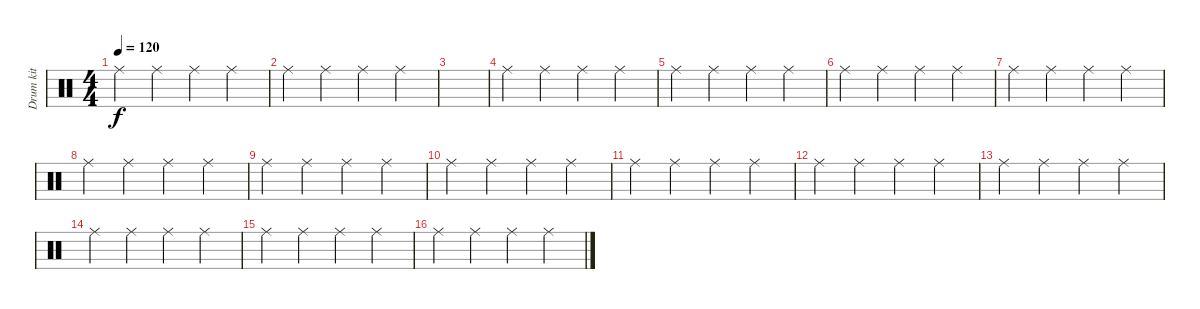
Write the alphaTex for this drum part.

\track ("Drum kit" "Drum kit") {instrument percussion}
\staff {score}
\articulation defaults
\ts (4 4)
\tempo 120
\clef neutral
\ks c "Ride (middle)".4{dy f} "Ride (middle)".4 "Ride (middle)".4 "Ride (middle)".4
|
"Ride (middle)".4 "Ride (middle)".4 "Ride (middle)".4 "Ride (middle)".4 |
|
"Ride (middle)".4 "Ride (middle)".4 "Ride (middle)".4 "Ride (middle)".4 |
"Ride (middle)".4 "Ride (middle)".4 "Ride (middle)".4 "Ride (middle)".4 |
"Ride (middle)".4 "Ride (middle)".4 "Ride (middle)".4 "Ride (middle)".4 |
"Ride (middle)".4 "Ride (middle)".4 "Ride (middle)".4 "Ride (middle)".4 |
"Ride (middle)".4 "Ride (middle)".4 "Ride (middle)".4 "Ride (middle)".4 |
"Ride (middle)".4 "Ride (middle)".4 "Ride (middle)".4 "Ride (middle)".4 |
"Ride (middle)".4 "Ride (middle)".4 "Ride (middle)".4 "Ride (middle)".4 |
"Ride (middle)".4 "Ride (middle)".4 "Ride (middle)".4 "Ride (middle)".4 |
"Ride (middle)".4 "Ride (middle)".4 "Ride (middle)".4 "Ride (middle)".4 |
"Ride (middle)".4 "Ride (middle)".4 "Ride (middle)".4 "Ride (middle)".4 |
"Ride (middle)".4 "Ride (middle)".4 "Ride (middle)".4 "Ride (middle)".4 |
"Ride (middle)".4 "Ride (middle)".4 "Ride (middle)".4 "Ride (middle)".4 |
"Ride (middle)".4 "Ride (middle)".4 "Ride (middle)".4 "Ride (middle)".4
